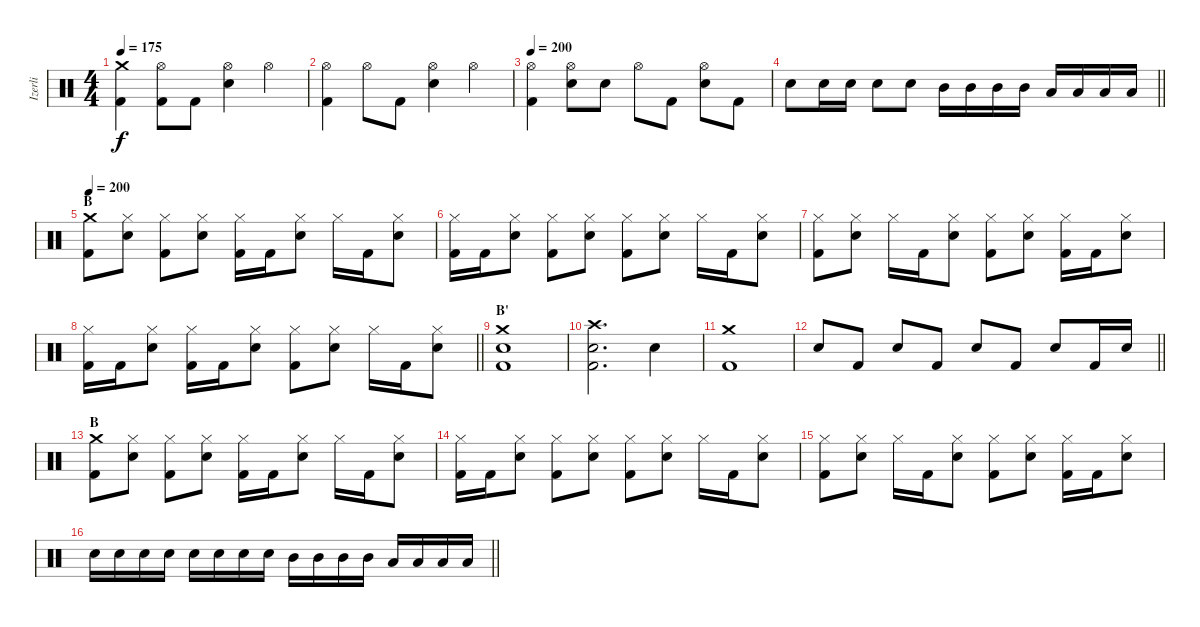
\track ("Izerli" "Izerli") {instrument percussion}
\staff {score}
\articulation defaults
\ts (4 4)
\tempo 175
\clef neutral
\ks c
("Crash medium (hit)" "Kick (hit) 2").4{dy f} ("Hi-Hat (open)" "Kick (hit) 2").8 "Kick (hit) 2".8 ("Hi-Hat (open)" "Electric Snare (hit)").4 "Hi-Hat (open)".4 |
("Hi-Hat (open)" "Kick (hit) 2").4 "Hi-Hat (open)".8 "Kick (hit) 2".8 ("Hi-Hat (open)" "Electric Snare (hit)").4 "Hi-Hat (open)".4 |
\tempo 200
("Hi-Hat (open)" "Kick (hit) 2").4 ("Hi-Hat (open)" "Electric Snare (hit)").8 "Electric Snare (hit)".8 "Hi-Hat (open)".8 "Kick (hit) 2".8 ("Hi-Hat (open)" "Electric Snare (hit)").8 "Kick (hit) 2".8 |
\barLineRight lightlight "Electric Snare (hit)".8 "Electric Snare (hit)".16 "Electric Snare (hit)".16 "Electric Snare (hit)".8 "Electric Snare (hit)".8 "Mid Tom (hit)".16 "Mid Tom (hit)".16 "Mid Tom (hit)".16 "Mid Tom (hit)".16 "Low Tom (hit)".16 "Low Tom (hit)".16 "Low Tom (hit)".16 "Low Tom (hit)".16
|
\section ("" "B")
\tempo 200
("Crash medium (hit)" "Kick (hit) 2").8 ("Hi-Hat (closed)" "Electric Snare (hit)").8 ("Hi-Hat (closed)" "Kick (hit) 2").8 ("Hi-Hat (closed)" "Electric Snare (hit)").8 ("Hi-Hat (closed)" "Kick (hit) 2").16 "Kick (hit) 2".16 ("Hi-Hat (closed)" "Electric Snare (hit)").8 "Hi-Hat (closed)".16 "Kick (hit) 2".16 ("Hi-Hat (closed)" "Electric Snare (hit)").8 |
("Hi-Hat (closed)" "Kick (hit) 2").16 "Kick (hit) 2".16 ("Hi-Hat (closed)" "Electric Snare (hit)").8 ("Hi-Hat (closed)" "Kick (hit) 2").8 ("Hi-Hat (closed)" "Electric Snare (hit)").8 ("Hi-Hat (closed)" "Kick (hit) 2").8 ("Hi-Hat (closed)" "Electric Snare (hit)").8 "Hi-Hat (closed)".16 "Kick (hit) 2".16 ("Hi-Hat (closed)" "Electric Snare (hit)").8 |
("Hi-Hat (closed)" "Kick (hit) 2").8 ("Hi-Hat (closed)" "Electric Snare (hit)").8 "Hi-Hat (closed)".16 "Kick (hit) 2".16 ("Hi-Hat (closed)" "Electric Snare (hit)").8 ("Hi-Hat (closed)" "Kick (hit) 2").8 ("Hi-Hat (closed)" "Electric Snare (hit)").8 ("Hi-Hat (closed)" "Kick (hit) 2").16 "Kick (hit) 2".16 ("Hi-Hat (closed)" "Electric Snare (hit)").8 |
\barLineRight lightlight
("Hi-Hat (closed)" "Kick (hit) 2").16 "Kick (hit) 2".16 ("Hi-Hat (closed)" "Electric Snare (hit)").8 ("Hi-Hat (closed)" "Kick (hit) 2").16 "Kick (hit) 2".16 ("Hi-Hat (closed)" "Electric Snare (hit)").8 ("Hi-Hat (closed)" "Kick (hit) 2").8 ("Hi-Hat (closed)" "Electric Snare (hit)").8 "Hi-Hat (closed)".16 "Kick (hit) 2".16 ("Hi-Hat (closed)" "Electric Snare (hit)").8 |
\section ("" "B'")
("Crash medium (hit)" "Electric Snare (hit)" "Kick (hit) 2").1 |
("Crash high (hit)" "Electric Snare (hit)" "Kick (hit) 2").2{d} "Electric Snare (hit)".4 |
("Crash medium (hit)" "Kick (hit) 2").1 |
\barLineRight lightlight "Electric Snare (hit)".8 "Kick (hit) 2".8 "Electric Snare (hit)".8 "Kick (hit) 2".8 "Electric Snare (hit)".8 "Kick (hit) 2".8 "Electric Snare (hit)".8 "Kick (hit) 2".16 "Electric Snare (hit)".16
|
\section ("" "B")
("Crash medium (hit)" "Kick (hit) 2").8 ("Hi-Hat (closed)" "Electric Snare (hit)").8 ("Hi-Hat (closed)" "Kick (hit) 2").8 ("Hi-Hat (closed)" "Electric Snare (hit)").8 ("Hi-Hat (closed)" "Kick (hit) 2").16 "Kick (hit) 2".16 ("Hi-Hat (closed)" "Electric Snare (hit)").8 "Hi-Hat (closed)".16 "Kick (hit) 2".16 ("Hi-Hat (closed)" "Electric Snare (hit)").8 |
("Hi-Hat (closed)" "Kick (hit) 2").16 "Kick (hit) 2".16 ("Hi-Hat (closed)" "Electric Snare (hit)").8 ("Hi-Hat (closed)" "Kick (hit) 2").8 ("Hi-Hat (closed)" "Electric Snare (hit)").8 ("Hi-Hat (closed)" "Kick (hit) 2").8 ("Hi-Hat (closed)" "Electric Snare (hit)").8 "Hi-Hat (closed)".16 "Kick (hit) 2".16 ("Hi-Hat (closed)" "Electric Snare (hit)").8 |
("Hi-Hat (closed)" "Kick (hit) 2").8 ("Hi-Hat (closed)" "Electric Snare (hit)").8 "Hi-Hat (closed)".16 "Kick (hit) 2".16 ("Hi-Hat (closed)" "Electric Snare (hit)").8 ("Hi-Hat (closed)" "Kick (hit) 2").8 ("Hi-Hat (closed)" "Electric Snare (hit)").8 ("Hi-Hat (closed)" "Kick (hit) 2").16 "Kick (hit) 2".16 ("Hi-Hat (closed)" "Electric Snare (hit)").8 |
\barLineRight lightlight "Electric Snare (hit)".16 "Electric Snare (hit)".16 "Electric Snare (hit)".16 "Electric Snare (hit)".16 "Electric Snare (hit)".16 "Electric Snare (hit)".16 "Electric Snare (hit)".16 "Electric Snare (hit)".16 "Mid Tom (hit)".16 "Mid Tom (hit)".16 "Mid Tom (hit)".16 "Mid Tom (hit)".16 "Low Tom (hit)".16 "Low Tom (hit)".16 "Low Tom (hit)".16 "Low Tom (hit)".16
